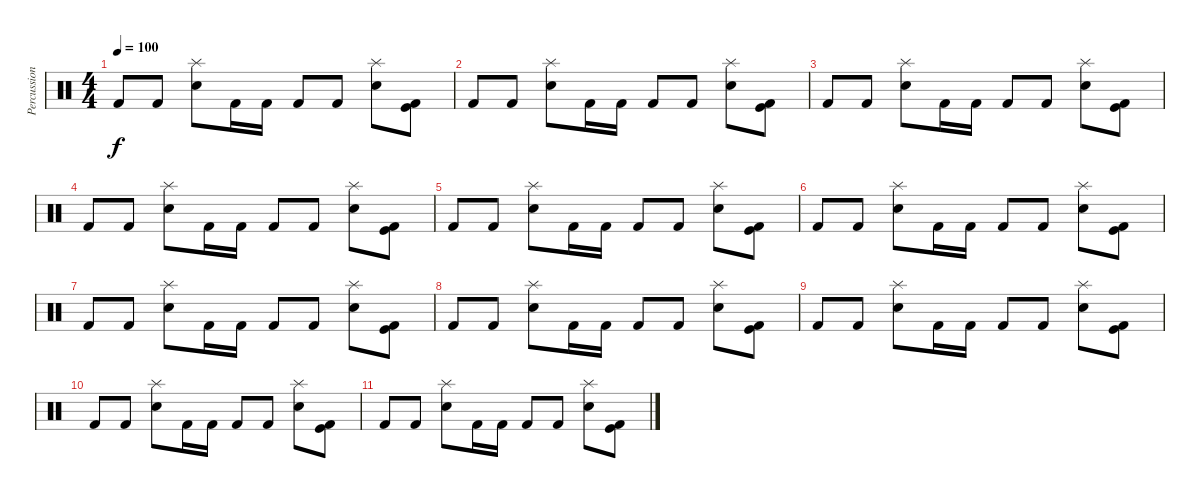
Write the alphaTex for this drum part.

\track ("Percussion" "Percussion") {instrument percussion}
\staff {score}
\articulation defaults
\ts (4 4)
\tempo 100
\clef neutral
\ks c "Kick (hit) 2".8{dy f} "Kick (hit) 2".8
("Splash (hit)" "Snare (hit) 2").8 "Kick (hit) 2".16 "Kick (hit) 2".16 "Kick (hit) 2".8 "Kick (hit) 2".8 ("Splash (hit)" "Snare (hit) 2").8 ("Kick (hit) 2" "Kick (hit)").8 |
"Kick (hit) 2".8 "Kick (hit) 2".8 ("Splash (hit)" "Snare (hit) 2").8 "Kick (hit) 2".16 "Kick (hit) 2".16 "Kick (hit) 2".8 "Kick (hit) 2".8 ("Splash (hit)" "Snare (hit) 2").8 ("Kick (hit) 2" "Kick (hit)").8 |
"Kick (hit) 2".8 "Kick (hit) 2".8 ("Splash (hit)" "Snare (hit) 2").8 "Kick (hit) 2".16 "Kick (hit) 2".16 "Kick (hit) 2".8 "Kick (hit) 2".8 ("Splash (hit)" "Snare (hit) 2").8 ("Kick (hit) 2" "Kick (hit)").8 |
"Kick (hit) 2".8 "Kick (hit) 2".8 ("Splash (hit)" "Snare (hit) 2").8 "Kick (hit) 2".16 "Kick (hit) 2".16 "Kick (hit) 2".8 "Kick (hit) 2".8 ("Splash (hit)" "Snare (hit) 2").8 ("Kick (hit) 2" "Kick (hit)").8 |
"Kick (hit) 2".8 "Kick (hit) 2".8 ("Splash (hit)" "Snare (hit) 2").8 "Kick (hit) 2".16 "Kick (hit) 2".16 "Kick (hit) 2".8 "Kick (hit) 2".8 ("Splash (hit)" "Snare (hit) 2").8 ("Kick (hit) 2" "Kick (hit)").8 |
"Kick (hit) 2".8 "Kick (hit) 2".8 ("Splash (hit)" "Snare (hit) 2").8 "Kick (hit) 2".16 "Kick (hit) 2".16 "Kick (hit) 2".8 "Kick (hit) 2".8 ("Splash (hit)" "Snare (hit) 2").8 ("Kick (hit) 2" "Kick (hit)").8 |
"Kick (hit) 2".8 "Kick (hit) 2".8 ("Splash (hit)" "Snare (hit) 2").8 "Kick (hit) 2".16 "Kick (hit) 2".16 "Kick (hit) 2".8 "Kick (hit) 2".8 ("Splash (hit)" "Snare (hit) 2").8 ("Kick (hit) 2" "Kick (hit)").8 |
"Kick (hit) 2".8 "Kick (hit) 2".8 ("Splash (hit)" "Snare (hit) 2").8 "Kick (hit) 2".16 "Kick (hit) 2".16 "Kick (hit) 2".8 "Kick (hit) 2".8 ("Splash (hit)" "Snare (hit) 2").8 ("Kick (hit) 2" "Kick (hit)").8 |
"Kick (hit) 2".8 "Kick (hit) 2".8 ("Splash (hit)" "Snare (hit) 2").8 "Kick (hit) 2".16 "Kick (hit) 2".16 "Kick (hit) 2".8 "Kick (hit) 2".8 ("Splash (hit)" "Snare (hit) 2").8 ("Kick (hit) 2" "Kick (hit)").8 |
"Kick (hit) 2".8 "Kick (hit) 2".8 ("Splash (hit)" "Snare (hit) 2").8 "Kick (hit) 2".16 "Kick (hit) 2".16 "Kick (hit) 2".8 "Kick (hit) 2".8 ("Splash (hit)" "Snare (hit) 2").8 ("Kick (hit) 2" "Kick (hit)").8 |
"Kick (hit) 2".8 "Kick (hit) 2".8 ("Splash (hit)" "Snare (hit) 2").8 "Kick (hit) 2".16 "Kick (hit) 2".16 "Kick (hit) 2".8 "Kick (hit) 2".8 ("Splash (hit)" "Snare (hit) 2").8 ("Kick (hit) 2" "Kick (hit)").8
